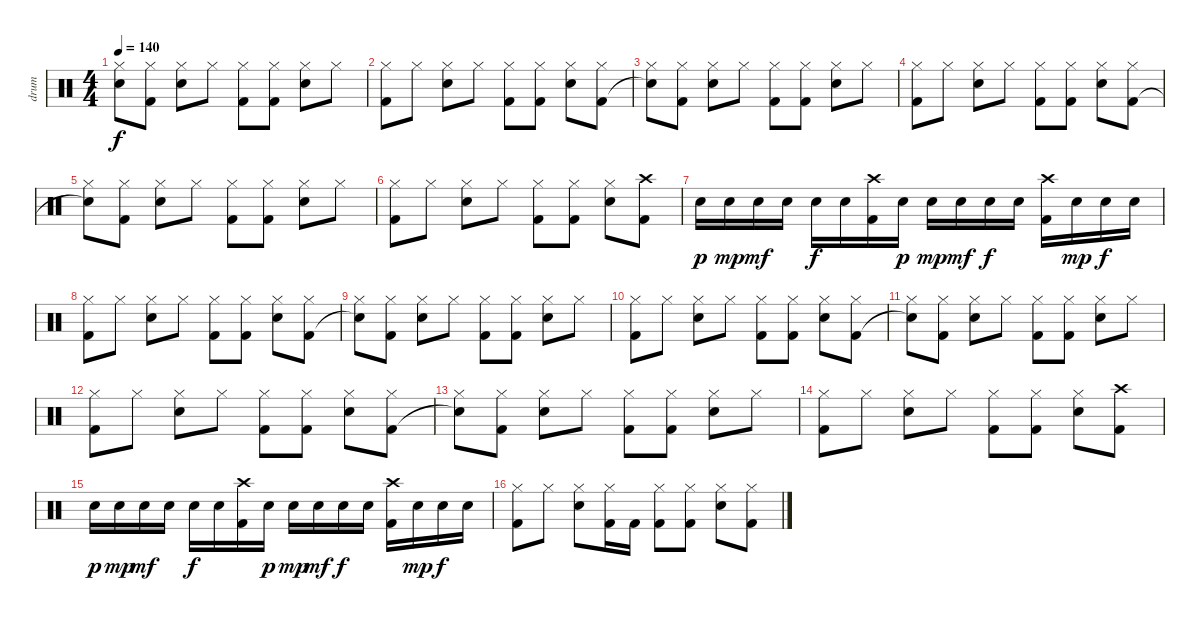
\track ("drum" "drum") {instrument percussion}
\staff {score}
\articulation defaults
\ts (4 4)
\tempo 140
\clef neutral
\ks c
("Hi-Hat (closed)" "Snare (hit)"{t}).8{dy f} ("Hi-Hat (closed)" "Kick (hit) 2").8 ("Hi-Hat (closed)" "Snare (hit) 2").8 "Hi-Hat (closed)".8 ("Hi-Hat (closed)" "Kick (hit) 2").8 ("Hi-Hat (closed)" "Kick (hit) 2").8 ("Hi-Hat (closed)" "Snare (hit) 2").8 "Hi-Hat (closed)".8 |
("Hi-Hat (closed)" "Kick (hit) 2").8 "Hi-Hat (closed)".8 ("Hi-Hat (closed)" "Snare (hit) 2").8 "Hi-Hat (closed)".8 ("Hi-Hat (closed)" "Kick (hit) 2").8 ("Hi-Hat (closed)" "Kick (hit) 2").8 ("Hi-Hat (closed)" "Snare (hit) 2").8 ("Hi-Hat (closed)" "Kick (hit) 2").8 |
("Hi-Hat (closed)" "Snare (hit)"{t}).8 ("Hi-Hat (closed)" "Kick (hit) 2").8 ("Hi-Hat (closed)" "Snare (hit) 2").8 "Hi-Hat (closed)".8 ("Hi-Hat (closed)" "Kick (hit) 2").8 ("Hi-Hat (closed)" "Kick (hit) 2").8 ("Hi-Hat (closed)" "Snare (hit) 2").8 "Hi-Hat (closed)".8 |
("Hi-Hat (closed)" "Kick (hit) 2").8 "Hi-Hat (closed)".8 ("Hi-Hat (closed)" "Snare (hit) 2").8 "Hi-Hat (closed)".8 ("Hi-Hat (closed)" "Kick (hit) 2").8 ("Hi-Hat (closed)" "Kick (hit) 2").8 ("Hi-Hat (closed)" "Snare (hit) 2").8 ("Hi-Hat (closed)" "Kick (hit) 2").8 |
("Hi-Hat (closed)" "Snare (hit)"{t}).8 ("Hi-Hat (closed)" "Kick (hit) 2").8 ("Hi-Hat (closed)" "Snare (hit) 2").8 "Hi-Hat (closed)".8 ("Hi-Hat (closed)" "Kick (hit) 2").8 ("Hi-Hat (closed)" "Kick (hit) 2").8 ("Hi-Hat (closed)" "Snare (hit) 2").8 "Hi-Hat (closed)".8 |
("Hi-Hat (closed)" "Kick (hit) 2").8 "Hi-Hat (closed)".8 ("Hi-Hat (closed)" "Snare (hit) 2").8 "Hi-Hat (closed)".8 ("Hi-Hat (closed)" "Kick (hit) 2").8 ("Hi-Hat (closed)" "Kick (hit) 2").8 ("Hi-Hat (closed)" "Snare (hit) 2").8 ("Crash high (hit)" "Kick (hit) 2").8 |
"Snare (hit) 2".16{dy p} "Snare (hit) 2".16{dy mp} "Snare (hit) 2".16{dy mf} "Snare (hit) 2".16 "Snare (hit) 2".16{dy f} "Snare (hit) 2".16 ("Crash high (hit)" "Kick (hit) 2").16 "Snare (hit) 2".16{dy p} "Snare (hit) 2".16{dy mp} "Snare (hit) 2".16{dy mf} "Snare (hit) 2".16{dy f} "Snare (hit) 2".16 ("Crash high (hit)" "Kick (hit) 2").16 "Snare (hit) 2".16{dy mp} "Snare (hit) 2".16{dy f} "Snare (hit) 2".16 |
("Hi-Hat (closed)" "Kick (hit) 2").8 "Hi-Hat (closed)".8 ("Hi-Hat (closed)" "Snare (hit) 2").8 "Hi-Hat (closed)".8 ("Hi-Hat (closed)" "Kick (hit) 2").8 ("Hi-Hat (closed)" "Kick (hit) 2").8 ("Hi-Hat (closed)" "Snare (hit) 2").8 ("Hi-Hat (closed)" "Kick (hit) 2").8 |
("Hi-Hat (closed)" "Snare (hit)"{t}).8 ("Hi-Hat (closed)" "Kick (hit) 2").8 ("Hi-Hat (closed)" "Snare (hit) 2").8 "Hi-Hat (closed)".8 ("Hi-Hat (closed)" "Kick (hit) 2").8 ("Hi-Hat (closed)" "Kick (hit) 2").8 ("Hi-Hat (closed)" "Snare (hit) 2").8 "Hi-Hat (closed)".8 |
("Hi-Hat (closed)" "Kick (hit) 2").8 "Hi-Hat (closed)".8 ("Hi-Hat (closed)" "Snare (hit) 2").8 "Hi-Hat (closed)".8 ("Hi-Hat (closed)" "Kick (hit) 2").8 ("Hi-Hat (closed)" "Kick (hit) 2").8 ("Hi-Hat (closed)" "Snare (hit) 2").8 ("Hi-Hat (closed)" "Kick (hit) 2").8 |
("Hi-Hat (closed)" "Snare (hit)"{t}).8 ("Hi-Hat (closed)" "Kick (hit) 2").8 ("Hi-Hat (closed)" "Snare (hit) 2").8 "Hi-Hat (closed)".8 ("Hi-Hat (closed)" "Kick (hit) 2").8 ("Hi-Hat (closed)" "Kick (hit) 2").8 ("Hi-Hat (closed)" "Snare (hit) 2").8 "Hi-Hat (closed)".8 |
("Hi-Hat (closed)" "Kick (hit) 2").8 "Hi-Hat (closed)".8 ("Hi-Hat (closed)" "Snare (hit) 2").8 "Hi-Hat (closed)".8 ("Hi-Hat (closed)" "Kick (hit) 2").8 ("Hi-Hat (closed)" "Kick (hit) 2").8 ("Hi-Hat (closed)" "Snare (hit) 2").8 ("Hi-Hat (closed)" "Kick (hit) 2").8 |
("Hi-Hat (closed)" "Snare (hit)"{t}).8 ("Hi-Hat (closed)" "Kick (hit) 2").8 ("Hi-Hat (closed)" "Snare (hit) 2").8 "Hi-Hat (closed)".8 ("Hi-Hat (closed)" "Kick (hit) 2").8 ("Hi-Hat (closed)" "Kick (hit) 2").8 ("Hi-Hat (closed)" "Snare (hit) 2").8 "Hi-Hat (closed)".8 |
("Hi-Hat (closed)" "Kick (hit) 2").8 "Hi-Hat (closed)".8 ("Hi-Hat (closed)" "Snare (hit) 2").8 "Hi-Hat (closed)".8 ("Hi-Hat (closed)" "Kick (hit) 2").8 ("Hi-Hat (closed)" "Kick (hit) 2").8 ("Hi-Hat (closed)" "Snare (hit) 2").8 ("Crash high (hit)" "Kick (hit) 2").8 |
"Snare (hit) 2".16{dy p} "Snare (hit) 2".16{dy mp} "Snare (hit) 2".16{dy mf} "Snare (hit) 2".16 "Snare (hit) 2".16{dy f} "Snare (hit) 2".16 ("Crash high (hit)" "Kick (hit) 2").16 "Snare (hit) 2".16{dy p} "Snare (hit) 2".16{dy mp} "Snare (hit) 2".16{dy mf} "Snare (hit) 2".16{dy f} "Snare (hit) 2".16 ("Crash high (hit)" "Kick (hit) 2").16 "Snare (hit) 2".16{dy mp} "Snare (hit) 2".16{dy f} "Snare (hit) 2".16 |
("Hi-Hat (closed)" "Kick (hit) 2").8 "Hi-Hat (closed)".8 ("Hi-Hat (closed)" "Snare (hit) 2").8 ("Hi-Hat (closed)" "Kick (hit) 2").16 "Kick (hit) 2".16 ("Hi-Hat (closed)" "Kick (hit) 2").8 ("Hi-Hat (closed)" "Kick (hit) 2").8 ("Hi-Hat (closed)" "Snare (hit) 2").8 ("Hi-Hat (closed)" "Kick (hit) 2").8
